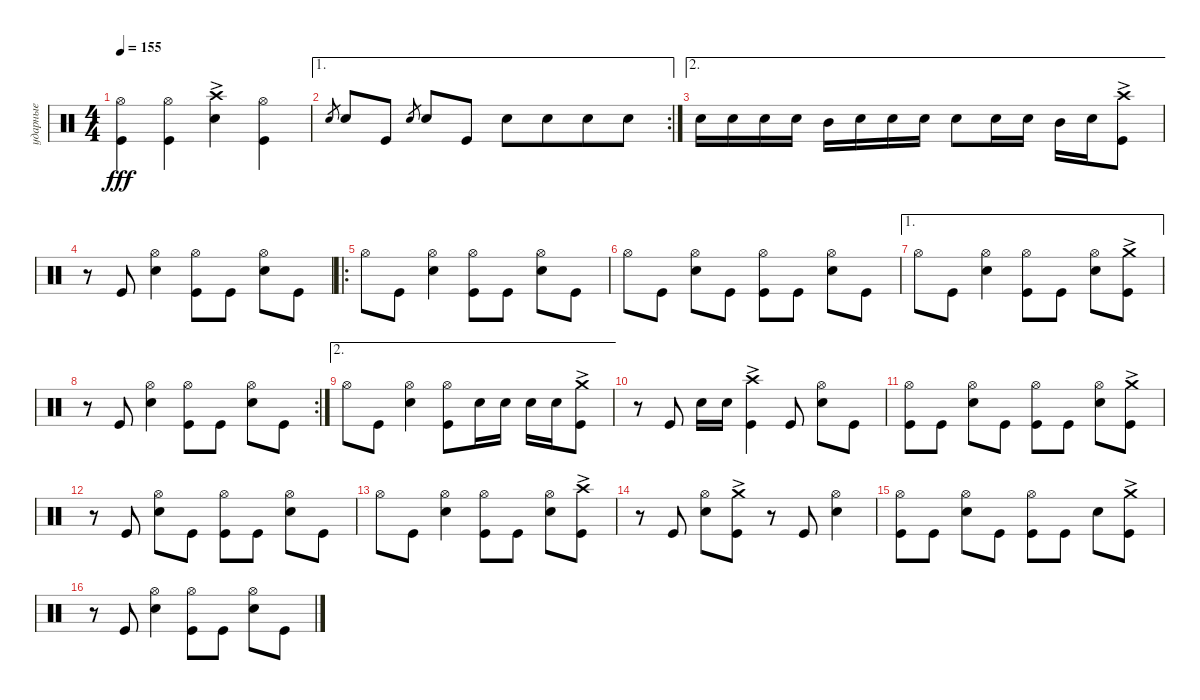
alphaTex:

\track ("ударные" "ударные") {instrument percussion}
\staff {score}
\articulation defaults
\ts (4 4)
\tempo 155
\clef neutral
\ks aminor
("Kick (hit)" "Hi-Hat (open)").4{dy fff} ("Kick (hit)" "Hi-Hat (open)").4 ("Snare (hit) 2" "Crash high (hit)"{ac}).4 ("Hi-Hat (open)" "Kick (hit)").4 |
\ae 1
\rc 2 "Snare (hit) 2"{h}.8{gr} "Snare (hit) 2".8 "Kick (hit)".8 "Snare (hit) 2"{h}.8{gr} "Snare (hit) 2".8 "Kick (hit)".8 "Snare (hit) 2".8 "Snare (hit) 2".8{beam merge} "Snare (hit) 2".8 "Snare (hit) 2".8
|
\ae 2 "Snare (hit) 2".16 "Snare (hit) 2".16 "Snare (hit) 2".16 "Snare (hit) 2".16 "Mid Tom (hit)".16 "Snare (hit) 2".16 "Snare (hit) 2".16 "Snare (hit) 2".16 "Snare (hit) 2".8 "Snare (hit) 2".16 "Snare (hit) 2".16 "Mid Tom (hit)".16 "Snare (hit) 2".16
("Kick (hit)" "Crash high (hit)"{ac}).8 |
r.8 "Kick (hit)".8 ("Snare (hit) 2" "Hi-Hat (open)").4 ("Kick (hit)" "Hi-Hat (open)").8 "Kick (hit)".8 ("Snare (hit) 2" "Hi-Hat (open)").8 "Kick (hit)".8 |
\ro "Hi-Hat (open)".8 "Kick (hit)".8
("Snare (hit) 2" "Hi-Hat (open)").4 ("Kick (hit)" "Hi-Hat (open)").8 "Kick (hit)".8 ("Snare (hit) 2" "Hi-Hat (open)").8 "Kick (hit)".8 |
"Hi-Hat (open)".8 "Kick (hit)".8 ("Snare (hit) 2" "Hi-Hat (open)").8 "Kick (hit)".8 ("Kick (hit)" "Hi-Hat (open)").8 "Kick (hit)".8 ("Snare (hit) 2" "Hi-Hat (open)").8 "Kick (hit)".8 |
\ae 1 "Hi-Hat (open)".8 "Kick (hit)".8
("Snare (hit) 2" "Hi-Hat (open)").4 ("Kick (hit)" "Hi-Hat (open)").8 "Kick (hit)".8 ("Snare (hit) 2" "Hi-Hat (open)").8 ("Kick (hit)" "Crash medium (hit)"{ac}).8 |
\rc 2
r.8 "Kick (hit)".8 ("Snare (hit) 2" "Hi-Hat (open)").4 ("Kick (hit)" "Hi-Hat (open)").8 "Kick (hit)".8 ("Snare (hit) 2" "Hi-Hat (open)").8 "Kick (hit)".8 |
\ae 2 "Hi-Hat (open)".8 "Kick (hit)".8
("Snare (hit) 2" "Hi-Hat (open)").4 ("Kick (hit)" "Hi-Hat (open)").8 "Snare (hit) 2".16 "Snare (hit) 2".16 "Snare (hit) 2".16 "Snare (hit) 2".16 ("Kick (hit)" "Crash medium (hit)"{ac}).8 |
r.8 "Kick (hit)".8 "Snare (hit) 2".16 "Snare (hit) 2".16 ("Kick (hit)" "Crash high (hit)"{ac}).4 "Kick (hit)".8 ("Snare (hit) 2" "Hi-Hat (open)").8 "Kick (hit)".8 |
("Kick (hit)" "Hi-Hat (open)").8 "Kick (hit)".8 ("Snare (hit) 2" "Hi-Hat (open)").8 "Kick (hit)".8 ("Kick (hit)" "Hi-Hat (open)").8 "Kick (hit)".8 ("Snare (hit) 2" "Hi-Hat (open)").8 ("Kick (hit)" "Crash medium (hit)"{ac}).8 |
r.8 "Kick (hit)".8 ("Snare (hit) 2" "Hi-Hat (open)").8 "Kick (hit)".8 ("Kick (hit)" "Hi-Hat (open)").8 "Kick (hit)".8 ("Snare (hit) 2" "Hi-Hat (open)").8 "Kick (hit)".8 |
"Hi-Hat (open)".8 "Kick (hit)".8 ("Snare (hit) 2" "Hi-Hat (open)").4 ("Kick (hit)" "Hi-Hat (open)").8 "Kick (hit)".8 ("Snare (hit) 2" "Hi-Hat (open)").8 ("Kick (hit)" "Crash high (hit)"{ac}).8 |
r.8 "Kick (hit)".8 ("Snare (hit) 2" "Hi-Hat (open)").8 ("Kick (hit)" "Crash medium (hit)"{ac}).8 r.8 "Kick (hit)".8 ("Snare (hit) 2" "Hi-Hat (open)").4 |
("Kick (hit)" "Hi-Hat (open)").8 "Kick (hit)".8 ("Snare (hit) 2" "Hi-Hat (open)").8 "Kick (hit)".8 ("Kick (hit)" "Hi-Hat (open)").8 "Kick (hit)".8 "Snare (hit) 2".8 ("Kick (hit)" "Crash medium (hit)"{ac}).8 |
r.8 "Kick (hit)".8 ("Snare (hit) 2" "Hi-Hat (open)").4 ("Kick (hit)" "Hi-Hat (open)").8 "Kick (hit)".8 ("Snare (hit) 2" "Hi-Hat (open)").8 "Kick (hit)".8
